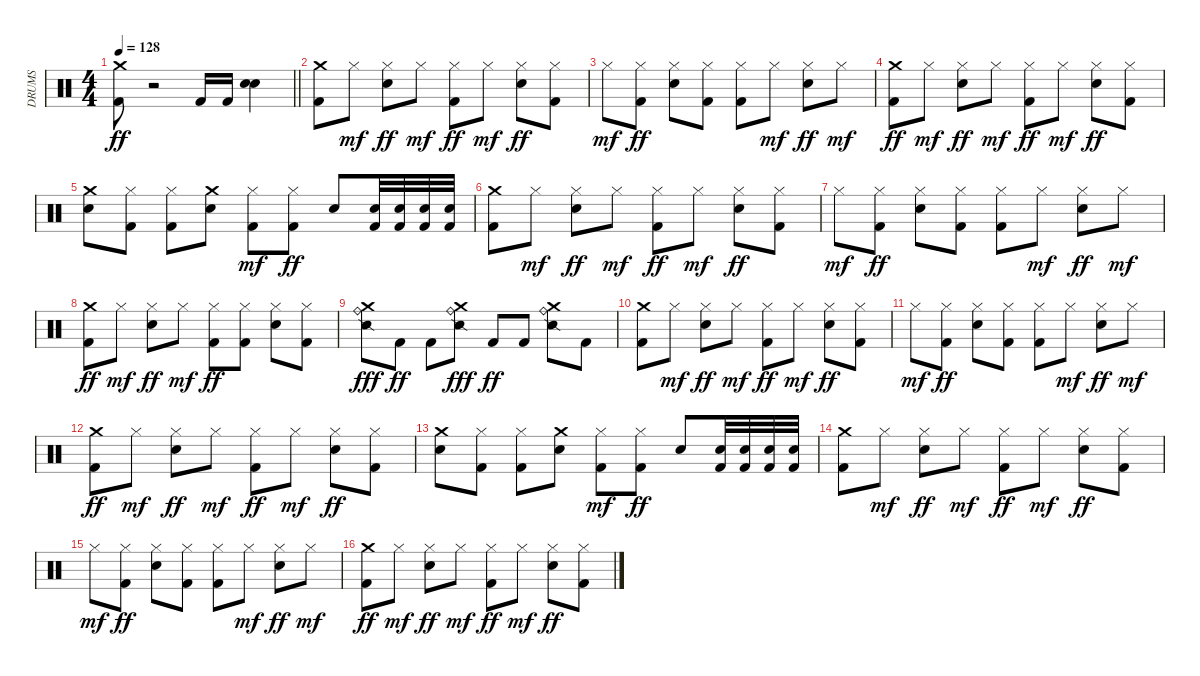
\track ("DRUMS" "DRUMS") {instrument percussion}
\staff {score}
\articulation defaults
\ts (4 4)
\tempo 128
\clef neutral
\barLineRight lightlight
\ks c
("Crash medium (hit)" "Kick (hit) 2").8{dy ff} r.2 "Kick (hit) 2".16 "Kick (hit) 2".16 ("Electric Snare (hit)" "Snare (hit) 2").4 |
("Crash medium (hit)" "Kick (hit) 2").8 "Hi-Hat (closed)".8{dy mf} ("Hi-Hat (closed)" "Snare (hit) 2").8{dy ff} "Hi-Hat (closed)".8{dy mf} ("Hi-Hat (closed)" "Kick (hit) 2").8{dy ff} "Hi-Hat (closed)".8{dy mf} ("Hi-Hat (closed)" "Snare (hit) 2").8{dy ff} ("Hi-Hat (closed)" "Kick (hit) 2").8 |
"Hi-Hat (closed)".8{dy mf} ("Hi-Hat (closed)" "Kick (hit) 2").8{dy ff} ("Hi-Hat (closed)" "Snare (hit) 2").8 ("Hi-Hat (closed)" "Kick (hit) 2").8 ("Hi-Hat (closed)" "Kick (hit) 2").8 "Hi-Hat (closed)".8{dy mf} ("Hi-Hat (closed)" "Snare (hit) 2").8{dy ff} "Hi-Hat (closed)".8{dy mf} |
("Crash medium (hit)" "Kick (hit) 2").8{dy ff} "Hi-Hat (closed)".8{dy mf} ("Hi-Hat (closed)" "Snare (hit) 2").8{dy ff} "Hi-Hat (closed)".8{dy mf} ("Hi-Hat (closed)" "Kick (hit) 2").8{dy ff} "Hi-Hat (closed)".8{dy mf} ("Hi-Hat (closed)" "Snare (hit) 2").8{dy ff} ("Hi-Hat (closed)" "Kick (hit) 2").8 |
("Crash medium (hit)" "Snare (hit) 2").8 ("Hi-Hat (closed)" "Kick (hit) 2").8 ("Hi-Hat (closed)" "Kick (hit) 2").8 ("Crash medium (hit)" "Snare (hit) 2").8 ("Hi-Hat (closed)" "Kick (hit) 2").8{dy mf} ("Hi-Hat (closed)" "Kick (hit) 2").8{dy ff} "Snare (hit) 2".8 ("Snare (hit) 2" "Kick (hit) 2").32 ("Snare (hit) 2" "Kick (hit) 2").32 ("Snare (hit) 2" "Kick (hit) 2").32 ("Snare (hit) 2" "Kick (hit) 2").32 |
("Crash medium (hit)" "Kick (hit) 2").8 "Hi-Hat (closed)".8{dy mf} ("Hi-Hat (closed)" "Snare (hit) 2").8{dy ff} "Hi-Hat (closed)".8{dy mf} ("Hi-Hat (closed)" "Kick (hit) 2").8{dy ff} "Hi-Hat (closed)".8{dy mf} ("Hi-Hat (closed)" "Snare (hit) 2").8{dy ff} ("Hi-Hat (closed)" "Kick (hit) 2").8 |
"Hi-Hat (closed)".8{dy mf} ("Hi-Hat (closed)" "Kick (hit) 2").8{dy ff} ("Hi-Hat (closed)" "Snare (hit) 2").8 ("Hi-Hat (closed)" "Kick (hit) 2").8 ("Hi-Hat (closed)" "Kick (hit) 2").8 "Hi-Hat (closed)".8{dy mf} ("Hi-Hat (closed)" "Snare (hit) 2").8{dy ff} "Hi-Hat (closed)".8{dy mf} |
("Crash medium (hit)" "Kick (hit) 2").8{dy ff} "Hi-Hat (closed)".8{dy mf} ("Hi-Hat (closed)" "Snare (hit) 2").8{dy ff} "Hi-Hat (closed)".8{dy mf} ("Hi-Hat (closed)" "Kick (hit) 2").8{dy ff} ("Hi-Hat (closed)" "Kick (hit) 2").8 ("Hi-Hat (closed)" "Snare (hit) 2").8 ("Hi-Hat (closed)" "Kick (hit) 2").8 |
("Crash medium (hit)" "Ride (bell)" "Snare (side stick) 2").8{dy fff} "Kick (hit) 2".8{dy ff} "Kick (hit) 2".8 ("Crash medium (hit)" "Ride (bell)" "Snare (side stick) 2").8{dy fff} "Kick (hit) 2".8{dy ff} "Kick (hit) 2".8 ("Crash medium (hit)" "Ride (bell)" "Snare (side stick) 2").8 "Kick (hit) 2".8 |
("Crash medium (hit)" "Kick (hit) 2").8 "Hi-Hat (closed)".8{dy mf} ("Hi-Hat (closed)" "Snare (hit) 2").8{dy ff} "Hi-Hat (closed)".8{dy mf} ("Hi-Hat (closed)" "Kick (hit) 2").8{dy ff} "Hi-Hat (closed)".8{dy mf} ("Hi-Hat (closed)" "Snare (hit) 2").8{dy ff} ("Hi-Hat (closed)" "Kick (hit) 2").8 |
"Hi-Hat (closed)".8{dy mf} ("Hi-Hat (closed)" "Kick (hit) 2").8{dy ff} ("Hi-Hat (closed)" "Snare (hit) 2").8 ("Hi-Hat (closed)" "Kick (hit) 2").8 ("Hi-Hat (closed)" "Kick (hit) 2").8 "Hi-Hat (closed)".8{dy mf} ("Hi-Hat (closed)" "Snare (hit) 2").8{dy ff} "Hi-Hat (closed)".8{dy mf} |
("Crash medium (hit)" "Kick (hit) 2").8{dy ff} "Hi-Hat (closed)".8{dy mf} ("Hi-Hat (closed)" "Snare (hit) 2").8{dy ff} "Hi-Hat (closed)".8{dy mf} ("Hi-Hat (closed)" "Kick (hit) 2").8{dy ff} "Hi-Hat (closed)".8{dy mf} ("Hi-Hat (closed)" "Snare (hit) 2").8{dy ff} ("Hi-Hat (closed)" "Kick (hit) 2").8 |
("Crash medium (hit)" "Snare (hit) 2").8 ("Hi-Hat (closed)" "Kick (hit) 2").8 ("Hi-Hat (closed)" "Kick (hit) 2").8 ("Crash medium (hit)" "Snare (hit) 2").8 ("Hi-Hat (closed)" "Kick (hit) 2").8{dy mf} ("Hi-Hat (closed)" "Kick (hit) 2").8{dy ff} "Snare (hit) 2".8 ("Snare (hit) 2" "Kick (hit) 2").32 ("Snare (hit) 2" "Kick (hit) 2").32 ("Snare (hit) 2" "Kick (hit) 2").32 ("Snare (hit) 2" "Kick (hit) 2").32 |
("Crash medium (hit)" "Kick (hit) 2").8 "Hi-Hat (closed)".8{dy mf} ("Hi-Hat (closed)" "Snare (hit) 2").8{dy ff} "Hi-Hat (closed)".8{dy mf} ("Hi-Hat (closed)" "Kick (hit) 2").8{dy ff} "Hi-Hat (closed)".8{dy mf} ("Hi-Hat (closed)" "Snare (hit) 2").8{dy ff} ("Hi-Hat (closed)" "Kick (hit) 2").8 |
"Hi-Hat (closed)".8{dy mf} ("Hi-Hat (closed)" "Kick (hit) 2").8{dy ff} ("Hi-Hat (closed)" "Snare (hit) 2").8 ("Hi-Hat (closed)" "Kick (hit) 2").8 ("Hi-Hat (closed)" "Kick (hit) 2").8 "Hi-Hat (closed)".8{dy mf} ("Hi-Hat (closed)" "Snare (hit) 2").8{dy ff} "Hi-Hat (closed)".8{dy mf} |
("Crash medium (hit)" "Kick (hit) 2").8{dy ff} "Hi-Hat (closed)".8{dy mf} ("Hi-Hat (closed)" "Snare (hit) 2").8{dy ff} "Hi-Hat (closed)".8{dy mf} ("Hi-Hat (closed)" "Kick (hit) 2").8{dy ff} "Hi-Hat (closed)".8{dy mf} ("Hi-Hat (closed)" "Snare (hit) 2").8{dy ff} ("Hi-Hat (closed)" "Kick (hit) 2").8
